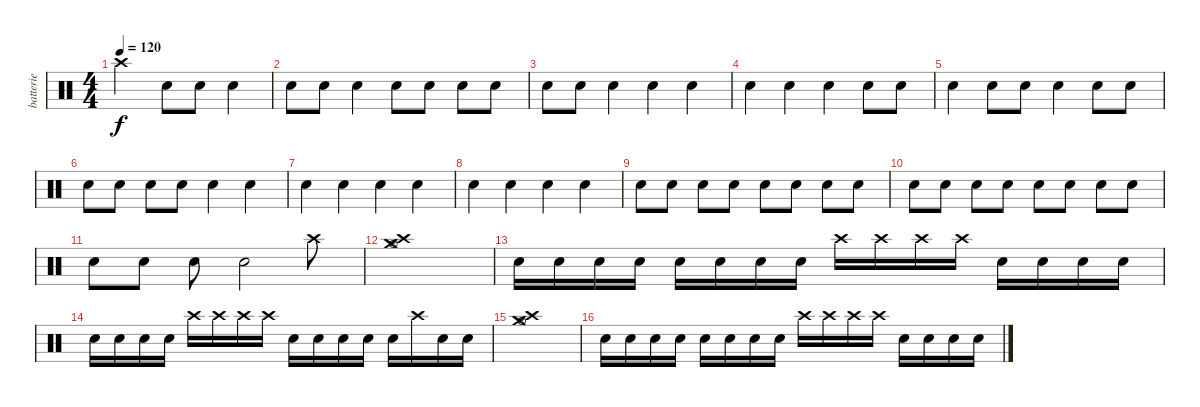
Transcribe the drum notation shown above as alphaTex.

\track ("batterie" "batterie") {instrument percussion}
\staff {score}
\articulation defaults
\ts (4 4)
\tempo 120
\clef neutral
\ks c "Crash high (hit)".2{dy f} "Snare (hit) 2".8 "Snare (hit) 2".8 "Electric Snare (hit)".4
|
"Snare (hit) 2".8 "Snare (hit) 2".8 "Electric Snare (hit)".4 "Snare (hit) 2".8 "Snare (hit) 2".8 "Electric Snare (hit)".8 "Electric Snare (hit)".8 |
"Snare (hit) 2".8 "Snare (hit) 2".8 "Electric Snare (hit)".4 "Snare (hit) 2".4 "Electric Snare (hit)".4 |
"Snare (hit) 2".4 "Electric Snare (hit)".4 "Snare (hit) 2".4 "Snare (hit) 2".8 "Snare (hit) 2".8 |
"Electric Snare (hit)".4 "Snare (hit) 2".8 "Snare (hit) 2".8 "Electric Snare (hit)".4 "Snare (hit) 2".8 "Snare (hit) 2".8 |
"Electric Snare (hit)".8 "Electric Snare (hit)".8 "Snare (hit) 2".8 "Snare (hit) 2".8 "Electric Snare (hit)".4 "Snare (hit) 2".4 |
"Electric Snare (hit)".4 "Snare (hit) 2".4 "Electric Snare (hit)".4 "Snare (hit) 2".4 |
"Electric Snare (hit)".4 "Snare (hit) 2".4 "Electric Snare (hit)".4 "Snare (hit) 2".4 |
"Snare (hit) 2".8 "Snare (hit) 2".8 "Electric Snare (hit)".8 "Electric Snare (hit)".8 "Snare (hit) 2".8 "Snare (hit) 2".8 "Electric Snare (hit)".8 "Electric Snare (hit)".8 |
"Snare (hit) 2".8 "Snare (hit) 2".8 "Electric Snare (hit)".8 "Electric Snare (hit)".8 "Snare (hit) 2".8 "Snare (hit) 2".8 "Electric Snare (hit)".8 "Electric Snare (hit)".8 |
"Snare (hit) 2".8 "Snare (hit) 2".8 "Electric Snare (hit)".8 "Electric Snare (hit)".2 "Crash high (hit)".8 |
("Crash medium (hit)" "Crash high (hit)" "Hi-Hat (open)").1 |
"Snare (hit) 2".16 "Snare (hit) 2".16 "Snare (hit) 2".16 "Snare (hit) 2".16 "Electric Snare (hit)".16 "Electric Snare (hit)".16 "Electric Snare (hit)".16 "Electric Snare (hit)".16 "Crash high (hit)".16 "Crash high (hit)".16 "Crash high (hit)".16 "Crash high (hit)".16 "Snare (hit) 2".16 "Snare (hit) 2".16 "Snare (hit) 2".16 "Snare (hit) 2".16 |
"Electric Snare (hit)".16 "Electric Snare (hit)".16 "Electric Snare (hit)".16 "Electric Snare (hit)".16 "Crash high (hit)".16 "Crash high (hit)".16 "Crash high (hit)".16 "Crash high (hit)".16 "Snare (hit) 2".16 "Snare (hit) 2".16 "Snare (hit) 2".16 "Snare (hit) 2".16 "Electric Snare (hit)".16 "Crash high (hit)".16 "Snare (hit) 2".16 "Electric Snare (hit)".16 |
("Crash high (hit)" "Crash medium (hit)" "Hi-Hat (open)").1 |
"Snare (hit) 2".16 "Snare (hit) 2".16 "Snare (hit) 2".16 "Snare (hit) 2".16 "Electric Snare (hit)".16 "Electric Snare (hit)".16 "Electric Snare (hit)".16 "Electric Snare (hit)".16 "Crash high (hit)".16 "Crash high (hit)".16 "Crash high (hit)".16 "Crash high (hit)".16 "Snare (hit) 2".16 "Snare (hit) 2".16 "Snare (hit) 2".16 "Snare (hit) 2".16
